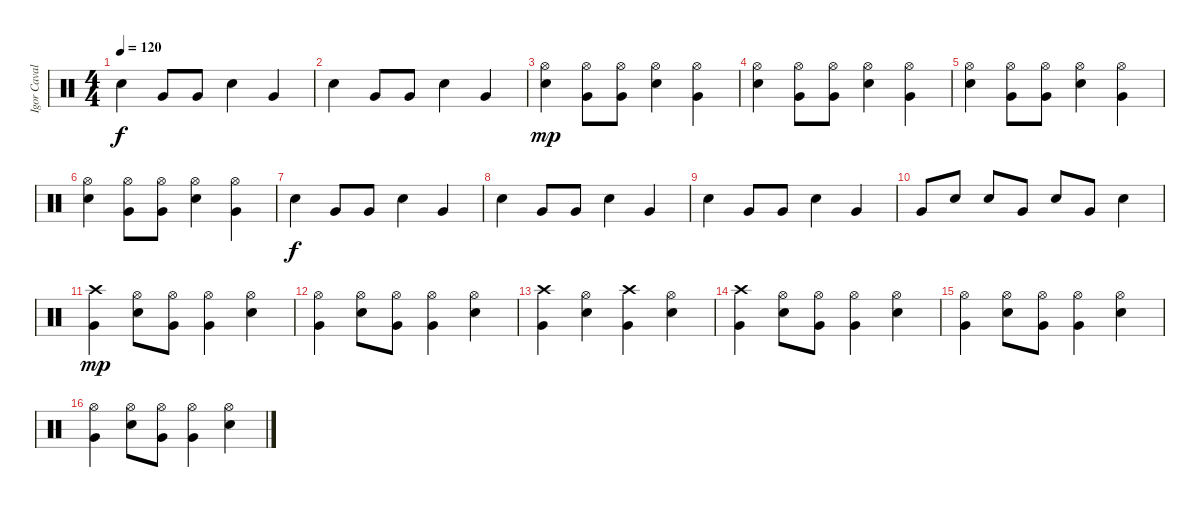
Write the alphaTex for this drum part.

\track ("Igor Cavalera" "Igor Caval") {instrument percussion}
\staff {score}
\articulation defaults
\ts (4 4)
\tempo 120
\clef neutral
\ks c "Snare (hit) 2".4{dy f} "Very Low Tom (hit)".8 "Very Low Tom (hit)".8 "Snare (hit) 2".4 "Very Low Tom (hit)".4
|
"Snare (hit) 2".4 "Very Low Tom (hit)".8 "Very Low Tom (hit)".8 "Snare (hit) 2".4 "Very Low Tom (hit)".4 |
("Hi-Hat (open)" "Snare (hit) 2").4{dy mp} ("Hi-Hat (open)" "Very Low Tom (hit)").8 ("Hi-Hat (open)" "Very Low Tom (hit)").8 ("Hi-Hat (open)" "Snare (hit) 2").4 ("Hi-Hat (open)" "Very Low Tom (hit)").4 |
("Hi-Hat (open)" "Snare (hit) 2").4 ("Hi-Hat (open)" "Very Low Tom (hit)").8 ("Hi-Hat (open)" "Very Low Tom (hit)").8 ("Hi-Hat (open)" "Snare (hit) 2").4 ("Hi-Hat (open)" "Very Low Tom (hit)").4 |
("Hi-Hat (open)" "Snare (hit) 2").4 ("Hi-Hat (open)" "Very Low Tom (hit)").8 ("Hi-Hat (open)" "Very Low Tom (hit)").8 ("Hi-Hat (open)" "Snare (hit) 2").4 ("Hi-Hat (open)" "Very Low Tom (hit)").4 |
("Hi-Hat (open)" "Snare (hit) 2").4 ("Hi-Hat (open)" "Very Low Tom (hit)").8 ("Hi-Hat (open)" "Very Low Tom (hit)").8 ("Hi-Hat (open)" "Snare (hit) 2").4 ("Hi-Hat (open)" "Very Low Tom (hit)").4 |
"Snare (hit) 2".4{dy f} "Very Low Tom (hit)".8 "Very Low Tom (hit)".8 "Snare (hit) 2".4 "Very Low Tom (hit)".4 |
"Snare (hit) 2".4 "Very Low Tom (hit)".8 "Very Low Tom (hit)".8 "Snare (hit) 2".4 "Very Low Tom (hit)".4 |
"Snare (hit) 2".4 "Very Low Tom (hit)".8 "Very Low Tom (hit)".8 "Snare (hit) 2".4 "Very Low Tom (hit)".4 |
"Very Low Tom (hit)".8 "Snare (hit) 2".8 "Snare (hit) 2".8 "Very Low Tom (hit)".8 "Snare (hit) 2".8 "Very Low Tom (hit)".8 "Snare (hit) 2".4 |
("Crash high (hit)" "Very Low Tom (hit)").4{dy mp} ("Hi-Hat (open)" "Snare (hit) 2").8 ("Hi-Hat (open)" "Very Low Tom (hit)").8 ("Hi-Hat (open)" "Very Low Tom (hit)").4 ("Hi-Hat (open)" "Snare (hit) 2").4 |
("Hi-Hat (open)" "Very Low Tom (hit)").4 ("Hi-Hat (open)" "Snare (hit) 2").8 ("Hi-Hat (open)" "Very Low Tom (hit)").8 ("Hi-Hat (open)" "Very Low Tom (hit)").4 ("Hi-Hat (open)" "Snare (hit) 2").4 |
("Crash high (hit)" "Very Low Tom (hit)").4 ("Hi-Hat (open)" "Snare (hit) 2").4 ("Crash high (hit)" "Very Low Tom (hit)").4 ("Hi-Hat (open)" "Snare (hit) 2").4 |
("Crash high (hit)" "Very Low Tom (hit)").4 ("Hi-Hat (open)" "Snare (hit) 2").8 ("Hi-Hat (open)" "Very Low Tom (hit)").8 ("Hi-Hat (open)" "Very Low Tom (hit)").4 ("Hi-Hat (open)" "Snare (hit) 2").4 |
("Hi-Hat (open)" "Very Low Tom (hit)").4 ("Hi-Hat (open)" "Snare (hit) 2").8 ("Hi-Hat (open)" "Very Low Tom (hit)").8 ("Hi-Hat (open)" "Very Low Tom (hit)").4 ("Hi-Hat (open)" "Snare (hit) 2").4 |
("Hi-Hat (open)" "Very Low Tom (hit)").4 ("Hi-Hat (open)" "Snare (hit) 2").8 ("Hi-Hat (open)" "Very Low Tom (hit)").8 ("Hi-Hat (open)" "Very Low Tom (hit)").4 ("Hi-Hat (open)" "Snare (hit) 2").4
